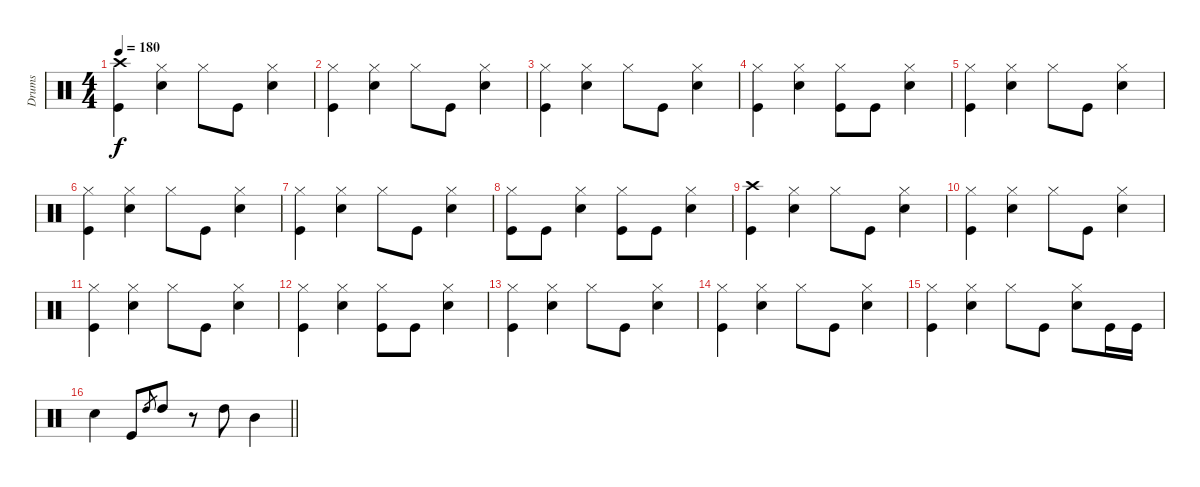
\track ("Drums" "Drums") {instrument percussion}
\staff {score}
\articulation defaults
\ts (4 4)
\tempo 180
\clef neutral
\ks c
("Crash high (hit)" "Kick (hit)").4{dy f} ("Hi-Hat (closed)" "Snare (hit) 2").4 "Hi-Hat (closed)".8 "Kick (hit)".8 ("Hi-Hat (closed)" "Snare (hit) 2").4 |
("Hi-Hat (closed)" "Kick (hit)").4 ("Hi-Hat (closed)" "Snare (hit) 2").4 "Hi-Hat (closed)".8 "Kick (hit)".8 ("Hi-Hat (closed)" "Snare (hit) 2").4 |
("Hi-Hat (closed)" "Kick (hit)").4 ("Hi-Hat (closed)" "Snare (hit) 2").4 "Hi-Hat (closed)".8 "Kick (hit)".8 ("Hi-Hat (closed)" "Snare (hit) 2").4 |
("Hi-Hat (closed)" "Kick (hit)").4 ("Hi-Hat (closed)" "Snare (hit) 2").4 ("Hi-Hat (closed)" "Kick (hit)").8 "Kick (hit)".8 ("Hi-Hat (closed)" "Snare (hit) 2").4 |
("Hi-Hat (closed)" "Kick (hit)").4 ("Hi-Hat (closed)" "Snare (hit) 2").4 "Hi-Hat (closed)".8 "Kick (hit)".8 ("Hi-Hat (closed)" "Snare (hit) 2").4 |
("Hi-Hat (closed)" "Kick (hit)").4 ("Hi-Hat (closed)" "Snare (hit) 2").4 "Hi-Hat (closed)".8 "Kick (hit)".8 ("Hi-Hat (closed)" "Snare (hit) 2").4 |
("Hi-Hat (closed)" "Kick (hit)").4 ("Hi-Hat (closed)" "Snare (hit) 2").4 "Hi-Hat (closed)".8 "Kick (hit)".8 ("Hi-Hat (closed)" "Snare (hit) 2").4 |
("Hi-Hat (closed)" "Kick (hit)").8 "Kick (hit)".8 ("Hi-Hat (closed)" "Snare (hit) 2").4 ("Hi-Hat (closed)" "Kick (hit)").8 "Kick (hit)".8 ("Hi-Hat (closed)" "Snare (hit) 2").4 |
("Crash high (hit)" "Kick (hit)").4 ("Hi-Hat (closed)" "Snare (hit) 2").4 "Hi-Hat (closed)".8 "Kick (hit)".8 ("Hi-Hat (closed)" "Snare (hit) 2").4 |
("Hi-Hat (closed)" "Kick (hit)").4 ("Hi-Hat (closed)" "Snare (hit) 2").4 "Hi-Hat (closed)".8 "Kick (hit)".8 ("Hi-Hat (closed)" "Snare (hit) 2").4 |
("Hi-Hat (closed)" "Kick (hit)").4 ("Hi-Hat (closed)" "Snare (hit) 2").4 "Hi-Hat (closed)".8 "Kick (hit)".8 ("Hi-Hat (closed)" "Snare (hit) 2").4 |
("Hi-Hat (closed)" "Kick (hit)").4 ("Hi-Hat (closed)" "Snare (hit) 2").4 ("Hi-Hat (closed)" "Kick (hit)").8 "Kick (hit)".8 ("Hi-Hat (closed)" "Snare (hit) 2").4 |
("Hi-Hat (closed)" "Kick (hit)").4 ("Hi-Hat (closed)" "Snare (hit) 2").4 "Hi-Hat (closed)".8 "Kick (hit)".8 ("Hi-Hat (closed)" "Snare (hit) 2").4 |
("Hi-Hat (closed)" "Kick (hit)").4 ("Hi-Hat (closed)" "Snare (hit) 2").4 "Hi-Hat (closed)".8 "Kick (hit)".8 ("Hi-Hat (closed)" "Snare (hit) 2").4 |
("Hi-Hat (closed)" "Kick (hit)").4 ("Hi-Hat (closed)" "Snare (hit) 2").4 "Hi-Hat (closed)".8 "Kick (hit)".8 ("Hi-Hat (closed)" "Snare (hit) 2").8 "Kick (hit)".16 "Kick (hit)".16 |
\barLineRight lightlight "Snare (hit) 2".4 "Kick (hit)".8 "High Tom (hit)".8{gr} "High Tom (hit)".8
r.8 "High Tom (hit)".8 "Mid Tom (hit)".4
